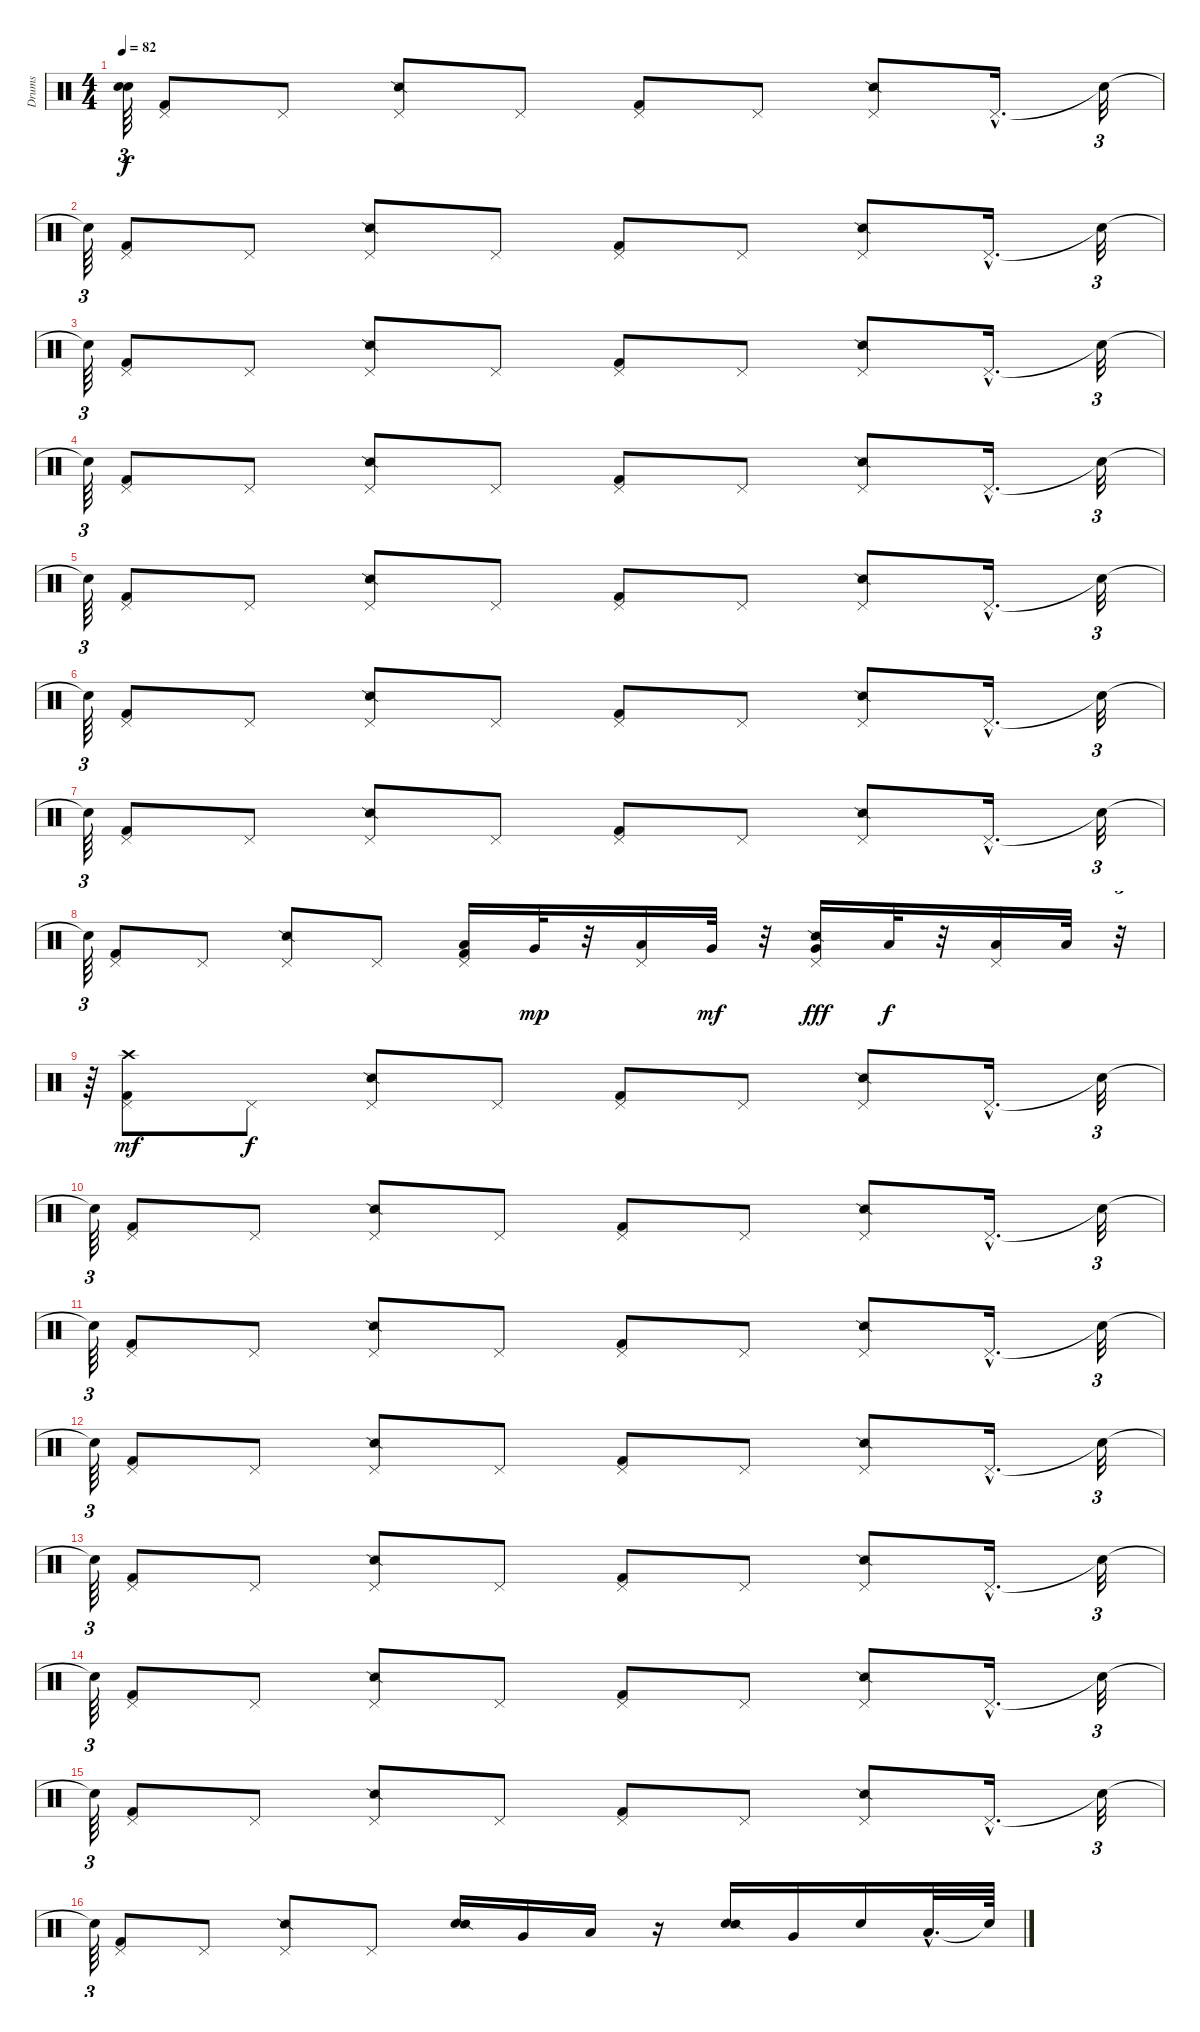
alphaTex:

\track ("Drums" "Drums") {instrument percussion}
\staff {score}
\articulation defaults
\ts (4 4)
\tempo 82
\clef neutral
\ks c
("Snare (hit)"{t} "Snare (hit)"{t}).64{tu (3 2) dy f} ("Pedal Hi-Hat (hit)" "Kick (hit) 2").8 "Pedal Hi-Hat (hit)".8 ("Pedal Hi-Hat (hit)" "Snare (side stick) 2").8 "Pedal Hi-Hat (hit)".8 ("Pedal Hi-Hat (hit)" "Kick (hit) 2").8 "Pedal Hi-Hat (hit)".8 ("Pedal Hi-Hat (hit)" "Snare (side stick) 2").8 "Pedal Hi-Hat (hit)"{hac}.16{d} "Snare (hit)"{t}.32{tu (3 2)} |
"Snare (hit)"{t}.64{tu (3 2)} ("Pedal Hi-Hat (hit)" "Kick (hit) 2").8 "Pedal Hi-Hat (hit)".8 ("Pedal Hi-Hat (hit)" "Snare (side stick) 2").8 "Pedal Hi-Hat (hit)".8 ("Pedal Hi-Hat (hit)" "Kick (hit) 2").8 "Pedal Hi-Hat (hit)".8 ("Pedal Hi-Hat (hit)" "Snare (side stick) 2").8 "Pedal Hi-Hat (hit)"{hac}.16{d} "Snare (hit)"{t}.32{tu (3 2)} |
"Snare (hit)"{t}.64{tu (3 2)} ("Pedal Hi-Hat (hit)" "Kick (hit) 2").8 "Pedal Hi-Hat (hit)".8 ("Pedal Hi-Hat (hit)" "Snare (side stick) 2").8 "Pedal Hi-Hat (hit)".8 ("Pedal Hi-Hat (hit)" "Kick (hit) 2").8 "Pedal Hi-Hat (hit)".8 ("Pedal Hi-Hat (hit)" "Snare (side stick) 2").8 "Pedal Hi-Hat (hit)"{hac}.16{d} "Snare (hit)"{t}.32{tu (3 2)} |
"Snare (hit)"{t}.64{tu (3 2)} ("Pedal Hi-Hat (hit)" "Kick (hit) 2").8 "Pedal Hi-Hat (hit)".8 ("Pedal Hi-Hat (hit)" "Snare (side stick) 2").8 "Pedal Hi-Hat (hit)".8 ("Pedal Hi-Hat (hit)" "Kick (hit) 2").8 "Pedal Hi-Hat (hit)".8 ("Pedal Hi-Hat (hit)" "Snare (side stick) 2").8 "Pedal Hi-Hat (hit)"{hac}.16{d} "Snare (hit)"{t}.32{tu (3 2)} |
"Snare (hit)"{t}.64{tu (3 2)} ("Pedal Hi-Hat (hit)" "Kick (hit) 2").8 "Pedal Hi-Hat (hit)".8 ("Pedal Hi-Hat (hit)" "Snare (side stick) 2").8 "Pedal Hi-Hat (hit)".8 ("Pedal Hi-Hat (hit)" "Kick (hit) 2").8 "Pedal Hi-Hat (hit)".8 ("Pedal Hi-Hat (hit)" "Snare (side stick) 2").8 "Pedal Hi-Hat (hit)"{hac}.16{d} "Snare (hit)"{t}.32{tu (3 2)} |
"Snare (hit)"{t}.64{tu (3 2)} ("Pedal Hi-Hat (hit)" "Kick (hit) 2").8 "Pedal Hi-Hat (hit)".8 ("Pedal Hi-Hat (hit)" "Snare (side stick) 2").8 "Pedal Hi-Hat (hit)".8 ("Pedal Hi-Hat (hit)" "Kick (hit) 2").8 "Pedal Hi-Hat (hit)".8 ("Pedal Hi-Hat (hit)" "Snare (side stick) 2").8 "Pedal Hi-Hat (hit)"{hac}.16{d} "Snare (hit)"{t}.32{tu (3 2)} |
"Snare (hit)"{t}.64{tu (3 2)} ("Pedal Hi-Hat (hit)" "Kick (hit) 2").8 "Pedal Hi-Hat (hit)".8 ("Pedal Hi-Hat (hit)" "Snare (side stick) 2").8 "Pedal Hi-Hat (hit)".8 ("Pedal Hi-Hat (hit)" "Kick (hit) 2").8 "Pedal Hi-Hat (hit)".8 ("Pedal Hi-Hat (hit)" "Snare (side stick) 2").8 "Pedal Hi-Hat (hit)"{hac}.16{d} "Snare (hit)"{t}.32{tu (3 2)} |
"Snare (hit)"{t}.64{tu (3 2)} ("Pedal Hi-Hat (hit)" "Kick (hit) 2").8 "Pedal Hi-Hat (hit)".8 ("Pedal Hi-Hat (hit)" "Snare (side stick) 2").8 "Pedal Hi-Hat (hit)".8 ("Low Tom (hit)" "Pedal Hi-Hat (hit)" "Kick (hit) 2").16 "Very Low Tom (hit)".32{dy mp} r.32 ("Low Floor Tom (hit)" "Pedal Hi-Hat (hit)").16 "Very Low Tom (hit)".32{dy mf} r.32 ("Very Low Tom (hit)" "Pedal Hi-Hat (hit)" "Snare (side stick) 2").16{dy fff} "Low Floor Tom (hit)".32{dy f} r.32 ("Low Floor Tom (hit)" "Pedal Hi-Hat (hit)").16 "Low Floor Tom (hit)".32 r.32{tu (3 2)} |
r.64{tu (3 2)} ("Crash high (hit)" "Pedal Hi-Hat (hit)" "Kick (hit) 2").8{dy mf volume 16 balance 8} "Pedal Hi-Hat (hit)".8{dy f} ("Pedal Hi-Hat (hit)" "Snare (side stick) 2").8 "Pedal Hi-Hat (hit)".8 ("Pedal Hi-Hat (hit)" "Kick (hit) 2").8 "Pedal Hi-Hat (hit)".8 ("Pedal Hi-Hat (hit)" "Snare (side stick) 2").8 "Pedal Hi-Hat (hit)"{hac}.16{d} "Snare (hit)"{t}.32{tu (3 2)} |
"Snare (hit)"{t}.64{tu (3 2)} ("Pedal Hi-Hat (hit)" "Kick (hit) 2").8 "Pedal Hi-Hat (hit)".8 ("Pedal Hi-Hat (hit)" "Snare (side stick) 2").8 "Pedal Hi-Hat (hit)".8 ("Pedal Hi-Hat (hit)" "Kick (hit) 2").8 "Pedal Hi-Hat (hit)".8 ("Pedal Hi-Hat (hit)" "Snare (side stick) 2").8 "Pedal Hi-Hat (hit)"{hac}.16{d} "Snare (hit)"{t}.32{tu (3 2)} |
"Snare (hit)"{t}.64{tu (3 2)} ("Pedal Hi-Hat (hit)" "Kick (hit) 2").8 "Pedal Hi-Hat (hit)".8 ("Pedal Hi-Hat (hit)" "Snare (side stick) 2").8 "Pedal Hi-Hat (hit)".8 ("Pedal Hi-Hat (hit)" "Kick (hit) 2").8 "Pedal Hi-Hat (hit)".8 ("Pedal Hi-Hat (hit)" "Snare (side stick) 2").8 "Pedal Hi-Hat (hit)"{hac}.16{d} "Snare (hit)"{t}.32{tu (3 2)} |
"Snare (hit)"{t}.64{tu (3 2)} ("Pedal Hi-Hat (hit)" "Kick (hit) 2").8 "Pedal Hi-Hat (hit)".8 ("Pedal Hi-Hat (hit)" "Snare (side stick) 2").8 "Pedal Hi-Hat (hit)".8 ("Pedal Hi-Hat (hit)" "Kick (hit) 2").8 "Pedal Hi-Hat (hit)".8 ("Pedal Hi-Hat (hit)" "Snare (side stick) 2").8 "Pedal Hi-Hat (hit)"{hac}.16{d} "Snare (hit)"{t}.32{tu (3 2)} |
"Snare (hit)"{t}.64{tu (3 2)} ("Pedal Hi-Hat (hit)" "Kick (hit) 2").8 "Pedal Hi-Hat (hit)".8 ("Pedal Hi-Hat (hit)" "Snare (side stick) 2").8 "Pedal Hi-Hat (hit)".8 ("Pedal Hi-Hat (hit)" "Kick (hit) 2").8 "Pedal Hi-Hat (hit)".8 ("Pedal Hi-Hat (hit)" "Snare (side stick) 2").8 "Pedal Hi-Hat (hit)"{hac}.16{d} "Snare (hit)"{t}.32{tu (3 2)} |
"Snare (hit)"{t}.64{tu (3 2)} ("Pedal Hi-Hat (hit)" "Kick (hit) 2").8 "Pedal Hi-Hat (hit)".8 ("Pedal Hi-Hat (hit)" "Snare (side stick) 2").8 "Pedal Hi-Hat (hit)".8 ("Pedal Hi-Hat (hit)" "Kick (hit) 2").8 "Pedal Hi-Hat (hit)".8 ("Pedal Hi-Hat (hit)" "Snare (side stick) 2").8 "Pedal Hi-Hat (hit)"{hac}.16{d} "Snare (hit)"{t}.32{tu (3 2)} |
"Snare (hit)"{t}.64{tu (3 2)} ("Pedal Hi-Hat (hit)" "Kick (hit) 2").8 "Pedal Hi-Hat (hit)".8 ("Pedal Hi-Hat (hit)" "Snare (side stick) 2").8 "Pedal Hi-Hat (hit)".8 ("Pedal Hi-Hat (hit)" "Kick (hit) 2").8 "Pedal Hi-Hat (hit)".8 ("Pedal Hi-Hat (hit)" "Snare (side stick) 2").8 "Pedal Hi-Hat (hit)"{hac}.16{d} "Snare (hit)"{t}.32{tu (3 2)} |
"Snare (hit)"{t}.64{tu (3 2)} ("Pedal Hi-Hat (hit)" "Kick (hit) 2").8 "Pedal Hi-Hat (hit)".8 ("Pedal Hi-Hat (hit)" "Snare (side stick) 2").8 "Pedal Hi-Hat (hit)".8 ("Electric Snare (hit)" "Snare (side stick) 2").16 "Very Low Tom (hit)".16 "Low Floor Tom (hit)".16 r.16 ("Electric Snare (hit)" "Snare (side stick) 2").16 "Very Low Tom (hit)".16 "Snare (hit)".16 "Low Floor Tom (hit)"{hac}.32{d} "Snare (hit)"{t}.64
